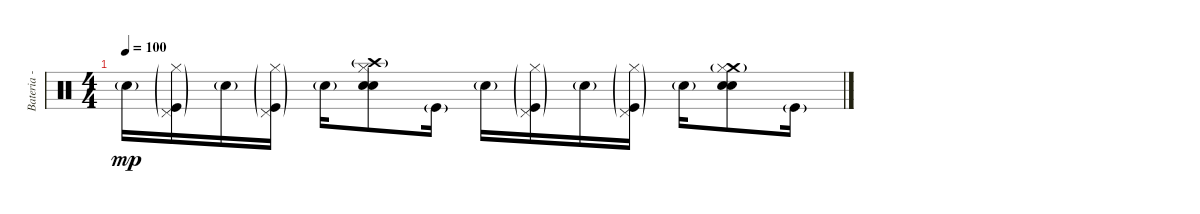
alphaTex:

\track ("Bateria - GONÇALO" "Bateria - ") {instrument percussion}
\staff {score}
\articulation defaults
\ts (4 4)
\tempo 100
\clef neutral
\ks c "Electric Snare (hit)"{g}.16{dy mp}
("Hi-Hat (closed)"{g} "Pedal Hi-Hat (hit)"{g} "Kick (hit)"{g}).16 "Snare (hit) 2"{g}.16 ("Hi-Hat (closed)"{g} "Pedal Hi-Hat (hit)"{g} "Kick (hit)"{g}).16 "Electric Snare (hit)"{g}.16 ("Crash high (hit)"{g} "Snare (hit) 2" "Electric Snare (hit)" "Hi-Hat (closed)").8 "Kick (hit)"{g}.16 "Electric Snare (hit)"{g}.16 ("Hi-Hat (closed)"{g} "Pedal Hi-Hat (hit)"{g} "Kick (hit)"{g}).16 "Snare (hit) 2"{g}.16 ("Hi-Hat (closed)"{g} "Pedal Hi-Hat (hit)"{g} "Kick (hit)"{g}).16 "Electric Snare (hit)"{g}.16 ("Crash medium (hit)"{g} "Snare (hit) 2" "Electric Snare (hit)" "Hi-Hat (closed)").8 "Kick (hit)"{g}.16
